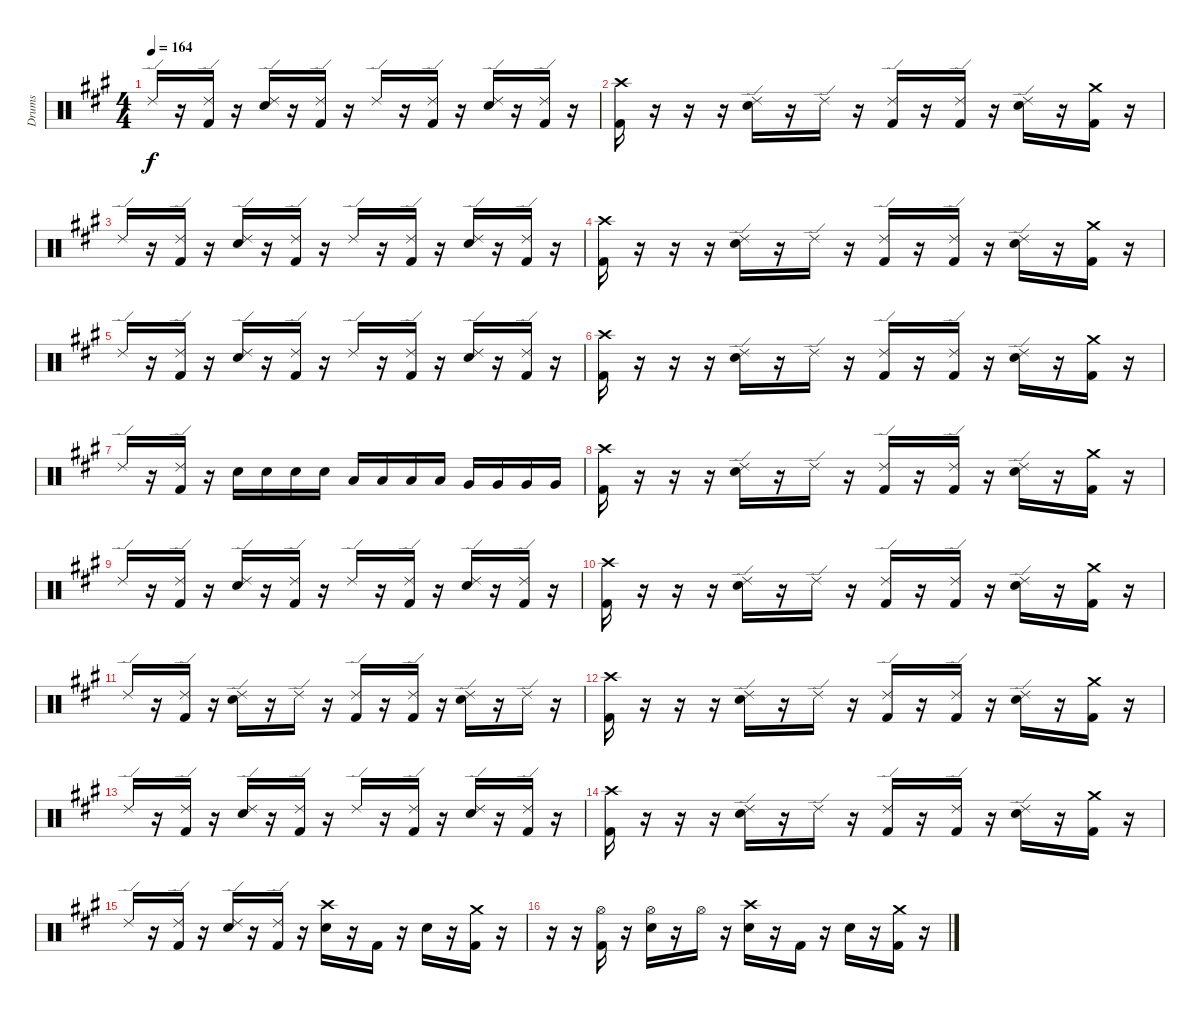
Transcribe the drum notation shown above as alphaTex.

\track ("Drums" "Drums") {instrument percussion}
\staff {score}
\articulation defaults
\ts (4 4)
\tempo 164
\clef neutral
\ks a "Ride (edge) 2".16{dy f}
r.16 ("Ride (edge) 2" "Kick (hit) 2").16 r.16 ("Ride (edge) 2" "Electric Snare (hit)").16 r.16 ("Ride (edge) 2" "Kick (hit) 2").16 r.16 "Ride (edge) 2".16 r.16 ("Ride (edge) 2" "Kick (hit) 2").16 r.16 ("Ride (edge) 2" "Electric Snare (hit)").16 r.16 ("Ride (edge) 2" "Kick (hit) 2").16 r.16 |
("Crash high (hit)" "Kick (hit) 2").16 r.16 r.16 r.16 ("Ride (edge) 2" "Electric Snare (hit)").16 r.16 "Ride (edge) 2".16 r.16 ("Ride (edge) 2" "Kick (hit) 2").16 r.16 ("Ride (edge) 2" "Kick (hit) 2").16 r.16 ("Ride (edge) 2" "Electric Snare (hit)").16 r.16 ("Crash medium (hit)" "Kick (hit) 2").16 r.16 |
"Ride (edge) 2".16 r.16 ("Ride (edge) 2" "Kick (hit) 2").16 r.16 ("Ride (edge) 2" "Electric Snare (hit)").16 r.16 ("Ride (edge) 2" "Kick (hit) 2").16 r.16 "Ride (edge) 2".16 r.16 ("Ride (edge) 2" "Kick (hit) 2").16 r.16 ("Ride (edge) 2" "Electric Snare (hit)").16 r.16 ("Ride (edge) 2" "Kick (hit) 2").16 r.16 |
("Crash high (hit)" "Kick (hit) 2").16 r.16 r.16 r.16 ("Ride (edge) 2" "Electric Snare (hit)").16 r.16 "Ride (edge) 2".16 r.16 ("Ride (edge) 2" "Kick (hit) 2").16 r.16 ("Ride (edge) 2" "Kick (hit) 2").16 r.16 ("Ride (edge) 2" "Electric Snare (hit)").16 r.16 ("Crash medium (hit)" "Kick (hit) 2").16 r.16 |
"Ride (edge) 2".16 r.16 ("Ride (edge) 2" "Kick (hit) 2").16 r.16 ("Ride (edge) 2" "Electric Snare (hit)").16 r.16 ("Ride (edge) 2" "Kick (hit) 2").16 r.16 "Ride (edge) 2".16 r.16 ("Ride (edge) 2" "Kick (hit) 2").16 r.16 ("Ride (edge) 2" "Electric Snare (hit)").16 r.16 ("Ride (edge) 2" "Kick (hit) 2").16 r.16 |
("Crash high (hit)" "Kick (hit) 2").16 r.16 r.16 r.16 ("Ride (edge) 2" "Electric Snare (hit)").16 r.16 "Ride (edge) 2".16 r.16 ("Ride (edge) 2" "Kick (hit) 2").16 r.16 ("Ride (edge) 2" "Kick (hit) 2").16 r.16 ("Ride (edge) 2" "Electric Snare (hit)").16 r.16 ("Crash medium (hit)" "Kick (hit) 2").16 r.16 |
"Ride (edge) 2".16 r.16 ("Ride (edge) 2" "Kick (hit) 2").16 r.16 "Electric Snare (hit)".16 "Electric Snare (hit)".16 "Electric Snare (hit)".16 "Electric Snare (hit)".16 "Low Tom (hit)".16 "Low Tom (hit)".16 "Low Tom (hit)".16 "Low Tom (hit)".16 "Very Low Tom (hit)".16 "Very Low Tom (hit)".16 "Very Low Tom (hit)".16 "Very Low Tom (hit)".16 |
("Crash high (hit)" "Kick (hit) 2").16 r.16 r.16 r.16 ("Ride (edge) 2" "Electric Snare (hit)").16 r.16 "Ride (edge) 2".16 r.16 ("Ride (edge) 2" "Kick (hit) 2").16 r.16 ("Ride (edge) 2" "Kick (hit) 2").16 r.16 ("Ride (edge) 2" "Electric Snare (hit)").16 r.16 ("Crash medium (hit)" "Kick (hit) 2").16 r.16 |
"Ride (edge) 2".16 r.16 ("Ride (edge) 2" "Kick (hit) 2").16 r.16 ("Ride (edge) 2" "Electric Snare (hit)").16 r.16 ("Ride (edge) 2" "Kick (hit) 2").16 r.16 "Ride (edge) 2".16 r.16 ("Ride (edge) 2" "Kick (hit) 2").16 r.16 ("Ride (edge) 2" "Electric Snare (hit)").16 r.16 ("Ride (edge) 2" "Kick (hit) 2").16 r.16 |
("Crash high (hit)" "Kick (hit) 2").16 r.16 r.16 r.16 ("Ride (edge) 2" "Electric Snare (hit)").16 r.16 "Ride (edge) 2".16 r.16 ("Ride (edge) 2" "Kick (hit) 2").16 r.16 ("Ride (edge) 2" "Kick (hit) 2").16 r.16 ("Ride (edge) 2" "Electric Snare (hit)").16 r.16 ("Crash medium (hit)" "Kick (hit) 2").16 r.16 |
"Ride (edge) 2".16 r.16 ("Ride (edge) 2" "Kick (hit) 2").16 r.16 ("Ride (edge) 2" "Electric Snare (hit)").16 r.16 "Ride (edge) 2".16 r.16 ("Ride (edge) 2" "Kick (hit) 2").16 r.16 ("Ride (edge) 2" "Kick (hit) 2").16 r.16 ("Ride (edge) 2" "Electric Snare (hit)").16 r.16 "Ride (edge) 2".16 r.16 |
("Crash high (hit)" "Kick (hit) 2").16 r.16 r.16 r.16 ("Ride (edge) 2" "Electric Snare (hit)").16 r.16 "Ride (edge) 2".16 r.16 ("Ride (edge) 2" "Kick (hit) 2").16 r.16 ("Ride (edge) 2" "Kick (hit) 2").16 r.16 ("Ride (edge) 2" "Electric Snare (hit)").16 r.16 ("Crash medium (hit)" "Kick (hit) 2").16 r.16 |
"Ride (edge) 2".16 r.16 ("Ride (edge) 2" "Kick (hit) 2").16 r.16 ("Ride (edge) 2" "Electric Snare (hit)").16 r.16 ("Ride (edge) 2" "Kick (hit) 2").16 r.16 "Ride (edge) 2".16 r.16 ("Ride (edge) 2" "Kick (hit) 2").16 r.16 ("Ride (edge) 2" "Electric Snare (hit)").16 r.16 ("Ride (edge) 2" "Kick (hit) 2").16 r.16 |
("Crash high (hit)" "Kick (hit) 2").16 r.16 r.16 r.16 ("Ride (edge) 2" "Electric Snare (hit)").16 r.16 "Ride (edge) 2".16 r.16 ("Ride (edge) 2" "Kick (hit) 2").16 r.16 ("Ride (edge) 2" "Kick (hit) 2").16 r.16 ("Ride (edge) 2" "Electric Snare (hit)").16 r.16 ("Crash medium (hit)" "Kick (hit) 2").16 r.16 |
"Ride (edge) 2".16 r.16 ("Ride (edge) 2" "Kick (hit) 2").16 r.16 ("Ride (edge) 2" "Electric Snare (hit)").16 r.16 ("Ride (edge) 2" "Kick (hit) 2").16 r.16 ("Crash high (hit)" "Electric Snare (hit)").16 r.16 "Kick (hit) 2".16 r.16 "Electric Snare (hit)".16 r.16 ("Crash medium (hit)" "Kick (hit) 2").16 r.16 |
r.16 r.16 ("Hi-Hat (open)" "Kick (hit) 2").16 r.16 ("Hi-Hat (open)" "Electric Snare (hit)").16 r.16 "Hi-Hat (open)".16 r.16 ("Crash high (hit)" "Electric Snare (hit)").16 r.16 "Kick (hit) 2".16 r.16 "Electric Snare (hit)".16 r.16 ("Crash medium (hit)" "Kick (hit) 2").16 r.16
